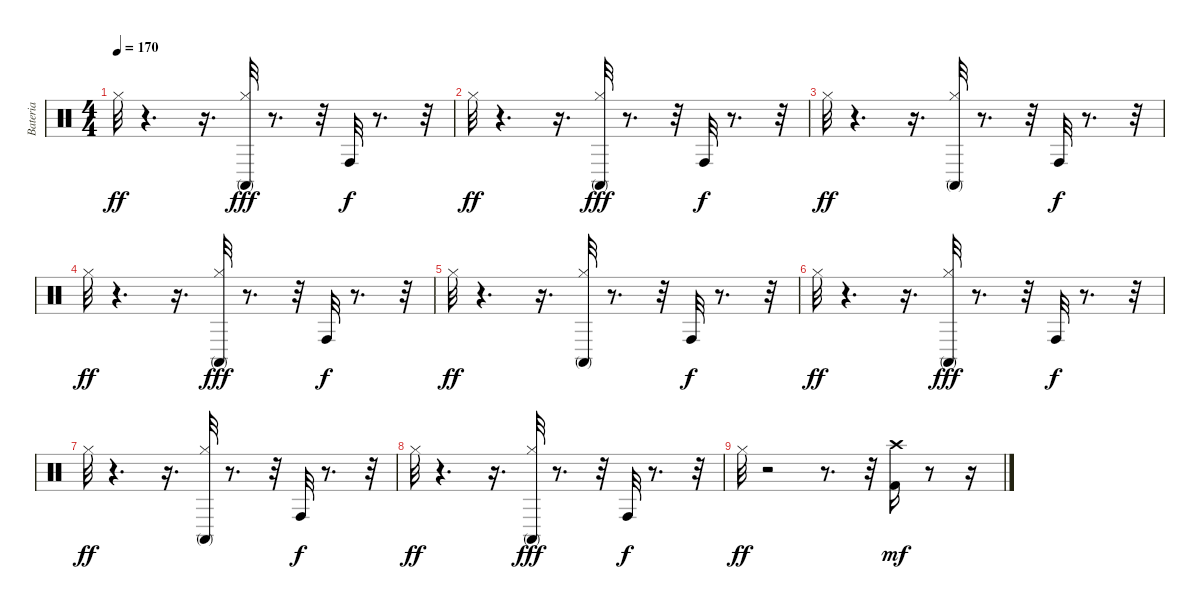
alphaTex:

\track ("Bateria" "Bateria") {instrument percussion}
\staff {score}
\articulation defaults
\ts (4 4)
\tempo 170
\clef neutral
\ks c "Hi-Hat (closed)".32{dy ff}
r.4{d} r.16{d} ("Hi-Hat (closed)" "Conga high (mute)").32{dy fff} r.8{d} r.32 "Conga high (hit)".32{dy f} r.8{d} r.32 |
"Hi-Hat (closed)".32{dy ff} r.4{d} r.16{d} ("Hi-Hat (closed)" "Conga high (mute)").32{dy fff} r.8{d} r.32 "Conga high (hit)".32{dy f} r.8{d} r.32 |
"Hi-Hat (closed)".32{dy ff} r.4{d} r.16{d} ("Conga high (mute)" "Hi-Hat (closed)").32 r.8{d} r.32 "Conga high (hit)".32{dy f} r.8{d} r.32 |
"Hi-Hat (closed)".32{dy ff} r.4{d} r.16{d} ("Hi-Hat (closed)" "Conga high (mute)").32{dy fff} r.8{d} r.32 "Conga high (hit)".32{dy f} r.8{d} r.32 |
"Hi-Hat (closed)".32{dy ff} r.4{d} r.16{d} ("Conga high (mute)" "Hi-Hat (closed)").32 r.8{d} r.32 "Conga high (hit)".32{dy f} r.8{d} r.32 |
"Hi-Hat (closed)".32{dy ff} r.4{d} r.16{d} ("Hi-Hat (closed)" "Conga high (mute)").32{dy fff} r.8{d} r.32 "Conga high (hit)".32{dy f} r.8{d} r.32 |
"Hi-Hat (closed)".32{dy ff} r.4{d} r.16{d} ("Conga high (mute)" "Hi-Hat (closed)").32 r.8{d} r.32 "Conga high (hit)".32{dy f} r.8{d} r.32 |
"Hi-Hat (closed)".32{dy ff} r.4{d} r.16{d} ("Hi-Hat (closed)" "Conga high (mute)").32{dy fff} r.8{d} r.32 "Conga high (hit)".32{dy f} r.8{d} r.32 |
"Hi-Hat (closed)".32{dy ff} r.2 r.8{d} r.32 ("Crash high (hit)" "Kick (hit) 2").16{dy mf} r.8 r.16
